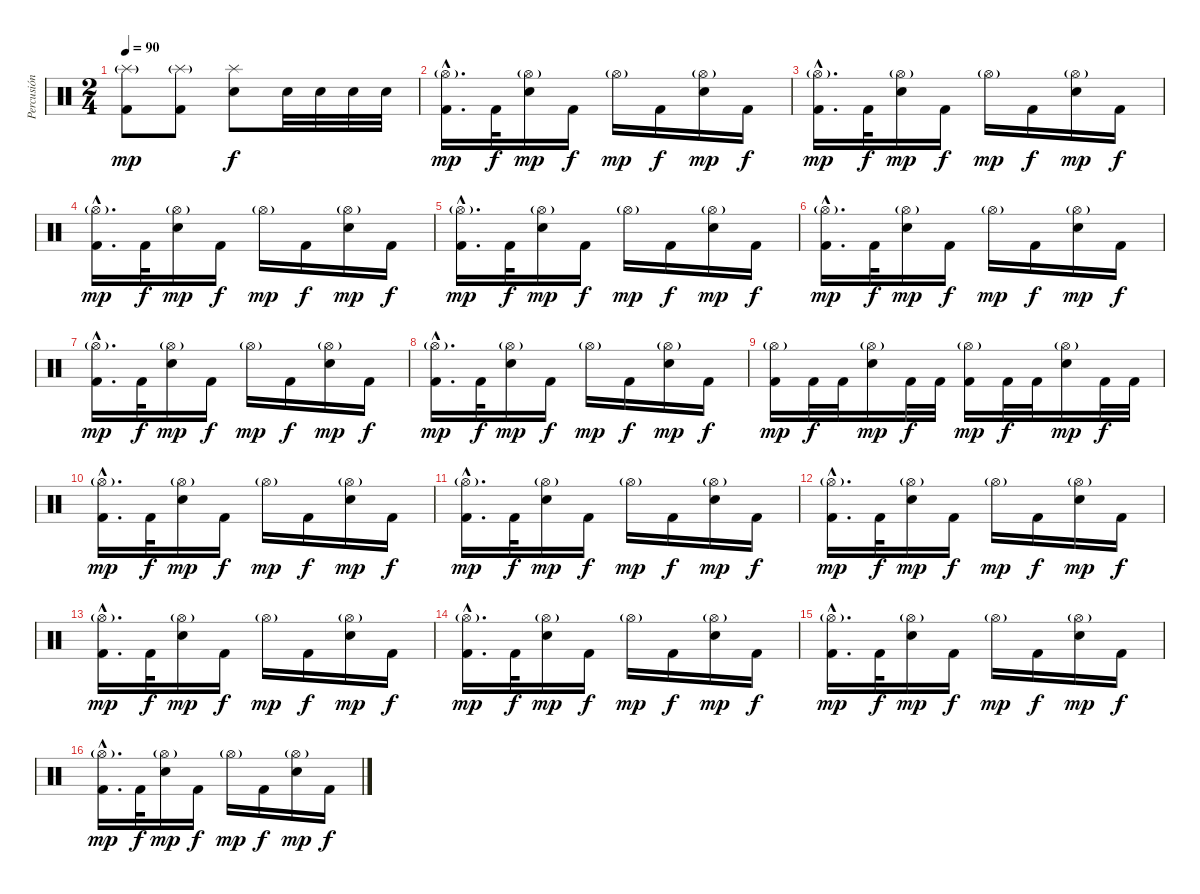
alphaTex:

\track ("Percusión" "Percusión") {instrument percussion}
\staff {score}
\articulation defaults
\ts (2 4)
\tempo 90
\clef neutral
\ks c
("Splash (hit)"{g} "Kick (hit) 2").8{dy mp} ("Splash (hit)"{g} "Kick (hit) 2").8 ("Electric Snare (hit)" "Splash (hit)").8{dy f} "Electric Snare (hit)".32 "Electric Snare (hit)".32 "Electric Snare (hit)".32 "Electric Snare (hit)".32 |
("Kick (hit) 2"{hac} "Hi-Hat (open)"{g hac}).16{d dy mp} "Kick (hit) 2".32{dy f} ("Electric Snare (hit)" "Hi-Hat (open)"{g}).16{dy mp} "Kick (hit) 2".16{dy f} "Hi-Hat (open)"{g}.16{dy mp} "Kick (hit) 2".16{dy f} ("Electric Snare (hit)" "Hi-Hat (open)"{g}).16{dy mp} "Kick (hit) 2".16{dy f} |
("Kick (hit) 2"{hac} "Hi-Hat (open)"{g hac}).16{d dy mp} "Kick (hit) 2".32{dy f} ("Electric Snare (hit)" "Hi-Hat (open)"{g}).16{dy mp} "Kick (hit) 2".16{dy f} "Hi-Hat (open)"{g}.16{dy mp} "Kick (hit) 2".16{dy f} ("Electric Snare (hit)" "Hi-Hat (open)"{g}).16{dy mp} "Kick (hit) 2".16{dy f} |
("Kick (hit) 2"{hac} "Hi-Hat (open)"{g hac}).16{d dy mp} "Kick (hit) 2".32{dy f} ("Electric Snare (hit)" "Hi-Hat (open)"{g}).16{dy mp} "Kick (hit) 2".16{dy f} "Hi-Hat (open)"{g}.16{dy mp} "Kick (hit) 2".16{dy f} ("Electric Snare (hit)" "Hi-Hat (open)"{g}).16{dy mp} "Kick (hit) 2".16{dy f} |
("Kick (hit) 2"{hac} "Hi-Hat (open)"{g hac}).16{d dy mp} "Kick (hit) 2".32{dy f} ("Electric Snare (hit)" "Hi-Hat (open)"{g}).16{dy mp} "Kick (hit) 2".16{dy f} "Hi-Hat (open)"{g}.16{dy mp} "Kick (hit) 2".16{dy f} ("Electric Snare (hit)" "Hi-Hat (open)"{g}).16{dy mp} "Kick (hit) 2".16{dy f} |
("Kick (hit) 2"{hac} "Hi-Hat (open)"{g hac}).16{d dy mp} "Kick (hit) 2".32{dy f} ("Electric Snare (hit)" "Hi-Hat (open)"{g}).16{dy mp} "Kick (hit) 2".16{dy f} "Hi-Hat (open)"{g}.16{dy mp} "Kick (hit) 2".16{dy f} ("Electric Snare (hit)" "Hi-Hat (open)"{g}).16{dy mp} "Kick (hit) 2".16{dy f} |
("Kick (hit) 2"{hac} "Hi-Hat (open)"{g hac}).16{d dy mp} "Kick (hit) 2".32{dy f} ("Electric Snare (hit)" "Hi-Hat (open)"{g}).16{dy mp} "Kick (hit) 2".16{dy f} "Hi-Hat (open)"{g}.16{dy mp} "Kick (hit) 2".16{dy f} ("Electric Snare (hit)" "Hi-Hat (open)"{g}).16{dy mp} "Kick (hit) 2".16{dy f} |
("Kick (hit) 2"{hac} "Hi-Hat (open)"{g hac}).16{d dy mp} "Kick (hit) 2".32{dy f} ("Electric Snare (hit)" "Hi-Hat (open)"{g}).16{dy mp} "Kick (hit) 2".16{dy f} "Hi-Hat (open)"{g}.16{dy mp} "Kick (hit) 2".16{dy f} ("Electric Snare (hit)" "Hi-Hat (open)"{g}).16{dy mp} "Kick (hit) 2".16{dy f} |
("Kick (hit) 2" "Hi-Hat (open)"{g}).16{dy mp} "Kick (hit) 2".32{dy f} "Kick (hit) 2".32 ("Electric Snare (hit)" "Hi-Hat (open)"{g}).16{dy mp} "Kick (hit) 2".32{dy f} "Kick (hit) 2".32 ("Kick (hit) 2" "Hi-Hat (open)"{g}).16{dy mp} "Kick (hit) 2".32{dy f} "Kick (hit) 2".32 ("Electric Snare (hit)" "Hi-Hat (open)"{g}).16{dy mp} "Kick (hit) 2".32{dy f} "Kick (hit) 2".32 |
("Kick (hit) 2"{hac} "Hi-Hat (open)"{g hac}).16{d dy mp} "Kick (hit) 2".32{dy f} ("Electric Snare (hit)" "Hi-Hat (open)"{g}).16{dy mp} "Kick (hit) 2".16{dy f} "Hi-Hat (open)"{g}.16{dy mp} "Kick (hit) 2".16{dy f} ("Electric Snare (hit)" "Hi-Hat (open)"{g}).16{dy mp} "Kick (hit) 2".16{dy f} |
("Kick (hit) 2"{hac} "Hi-Hat (open)"{g hac}).16{d dy mp} "Kick (hit) 2".32{dy f} ("Electric Snare (hit)" "Hi-Hat (open)"{g}).16{dy mp} "Kick (hit) 2".16{dy f} "Hi-Hat (open)"{g}.16{dy mp} "Kick (hit) 2".16{dy f} ("Electric Snare (hit)" "Hi-Hat (open)"{g}).16{dy mp} "Kick (hit) 2".16{dy f} |
("Kick (hit) 2"{hac} "Hi-Hat (open)"{g hac}).16{d dy mp} "Kick (hit) 2".32{dy f} ("Electric Snare (hit)" "Hi-Hat (open)"{g}).16{dy mp} "Kick (hit) 2".16{dy f} "Hi-Hat (open)"{g}.16{dy mp} "Kick (hit) 2".16{dy f} ("Electric Snare (hit)" "Hi-Hat (open)"{g}).16{dy mp} "Kick (hit) 2".16{dy f} |
("Kick (hit) 2"{hac} "Hi-Hat (open)"{g hac}).16{d dy mp} "Kick (hit) 2".32{dy f} ("Electric Snare (hit)" "Hi-Hat (open)"{g}).16{dy mp} "Kick (hit) 2".16{dy f} "Hi-Hat (open)"{g}.16{dy mp} "Kick (hit) 2".16{dy f} ("Electric Snare (hit)" "Hi-Hat (open)"{g}).16{dy mp} "Kick (hit) 2".16{dy f} |
("Kick (hit) 2"{hac} "Hi-Hat (open)"{g hac}).16{d dy mp} "Kick (hit) 2".32{dy f} ("Electric Snare (hit)" "Hi-Hat (open)"{g}).16{dy mp} "Kick (hit) 2".16{dy f} "Hi-Hat (open)"{g}.16{dy mp} "Kick (hit) 2".16{dy f} ("Electric Snare (hit)" "Hi-Hat (open)"{g}).16{dy mp} "Kick (hit) 2".16{dy f} |
("Kick (hit) 2"{hac} "Hi-Hat (open)"{g hac}).16{d dy mp} "Kick (hit) 2".32{dy f} ("Electric Snare (hit)" "Hi-Hat (open)"{g}).16{dy mp} "Kick (hit) 2".16{dy f} "Hi-Hat (open)"{g}.16{dy mp} "Kick (hit) 2".16{dy f} ("Electric Snare (hit)" "Hi-Hat (open)"{g}).16{dy mp} "Kick (hit) 2".16{dy f} |
("Kick (hit) 2"{hac} "Hi-Hat (open)"{g hac}).16{d dy mp} "Kick (hit) 2".32{dy f} ("Electric Snare (hit)" "Hi-Hat (open)"{g}).16{dy mp} "Kick (hit) 2".16{dy f} "Hi-Hat (open)"{g}.16{dy mp} "Kick (hit) 2".16{dy f} ("Electric Snare (hit)" "Hi-Hat (open)"{g}).16{dy mp} "Kick (hit) 2".16{dy f}
